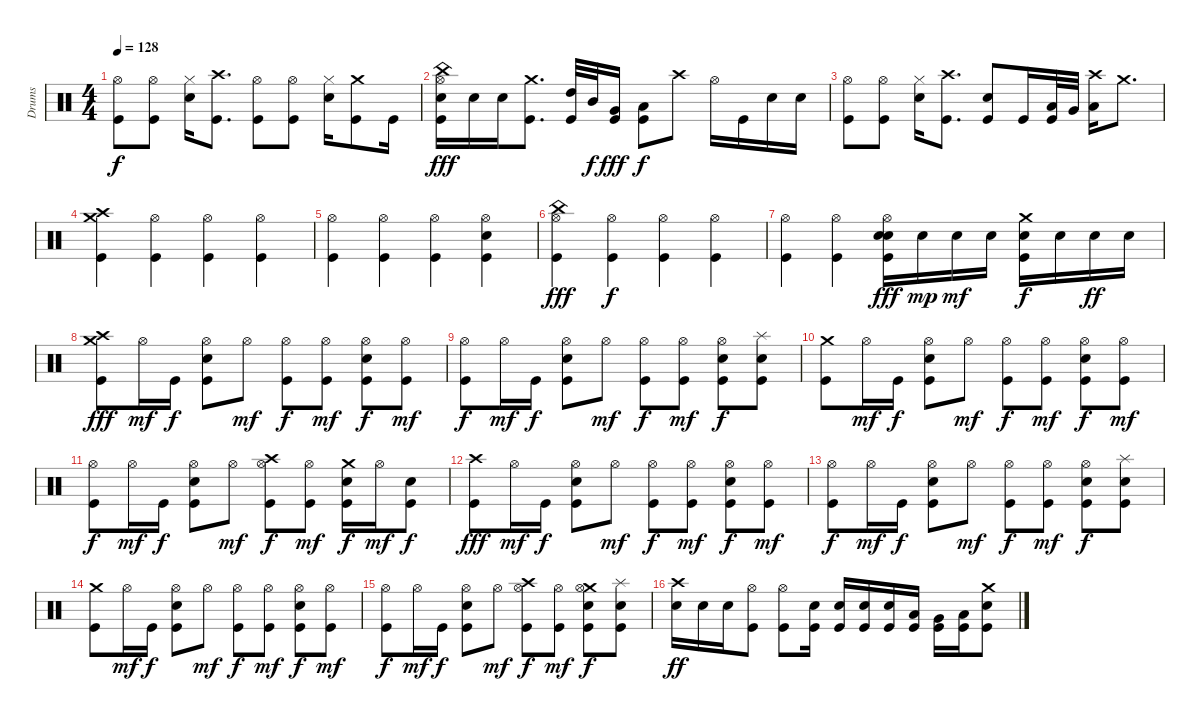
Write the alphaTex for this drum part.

\track ("Drums" "Drums") {instrument percussion}
\staff {score}
\articulation defaults
\ts (4 4)
\tempo 128
\clef neutral
\ks c
("Hi-Hat (open)" "Kick (hit)").8{dy f} ("Kick (hit)" "Hi-Hat (open)").8 ("Hi-Hat (closed)" "Snare (hit) 2").16 ("Crash high (hit)" "Kick (hit)").8{d} ("Hi-Hat (open)" "Kick (hit)").8 ("Hi-Hat (open)" "Kick (hit)").8 ("Hi-Hat (closed)" "Snare (hit) 2").16 ("Crash medium (hit)" "Kick (hit)").8 "Kick (hit)".16 |
("Hi-Hat (open)" "China (hit)" "Kick (hit)" "Snare (hit) 2").16{dy fff} "Snare (hit) 2".16 "Snare (hit) 2".16 ("Kick (hit)" "Crash medium (hit)").8{d} ("Kick (hit)" "High Tom (hit)").32 "Mid Tom (hit)".32{dy f} ("Kick (hit)" "Very Low Tom (hit)").16{dy fff} ("Low Floor Tom (hit)" "Kick (hit)").8{dy f} "Crash high (hit)".8 "Hi-Hat (open)".16 "Kick (hit)".16 "Snare (hit) 2".16 "Snare (hit) 2".16 |
("Hi-Hat (open)" "Kick (hit)").8 ("Hi-Hat (open)" "Kick (hit)").8 ("Hi-Hat (closed)" "Snare (hit) 2").16 ("Crash high (hit)" "Kick (hit)").8{d} ("Snare (hit) 2" "Kick (hit)").8 "Kick (hit)".16 ("Low Tom (hit)" "Kick (hit)").32 "Very Low Tom (hit)".32 ("Low Floor Tom (hit)" "Crash high (hit)").16 "Crash medium (hit)".8{d} |
("Crash medium (hit)" "Crash high (hit)" "Kick (hit)").4 ("Hi-Hat (open)" "Kick (hit)").4 ("Hi-Hat (open)" "Kick (hit)").4 ("Hi-Hat (open)" "Kick (hit)").4 |
("Hi-Hat (open)" "Kick (hit)").4 ("Hi-Hat (open)" "Kick (hit)").4 ("Hi-Hat (open)" "Kick (hit)").4 ("Snare (hit) 2" "Kick (hit)" "Hi-Hat (open)").4 |
("Kick (hit)" "Hi-Hat (open)" "China (hit)").4{dy fff} ("Kick (hit)" "Hi-Hat (open)").4{dy f} ("Hi-Hat (open)" "Kick (hit)").4 ("Hi-Hat (open)" "Kick (hit)").4 |
("Hi-Hat (open)" "Kick (hit)").4 ("Hi-Hat (open)" "Kick (hit)").4 ("Electric Snare (hit)" "Hi-Hat (open)" "Kick (hit)" "Snare (hit) 2").16{dy fff} "Snare (hit) 2".16{dy mp} "Snare (hit) 2".16{dy mf} "Snare (hit) 2".16 ("Snare (hit) 2" "Kick (hit)" "Crash medium (hit)").16{dy f} "Snare (hit) 2".16 "Snare (hit) 2".16{dy ff} "Snare (hit) 2".16 |
("Crash medium (hit)" "Kick (hit)" "Crash high (hit)").8{dy fff} "Hi-Hat (open)".16{dy mf} "Kick (hit)".16{dy f} ("Hi-Hat (open)" "Snare (hit) 2" "Kick (hit)").8 "Hi-Hat (open)".8{dy mf} ("Hi-Hat (open)" "Kick (hit)").8{dy f} ("Hi-Hat (open)" "Kick (hit)").8{dy mf} ("Kick (hit)" "Hi-Hat (open)" "Snare (hit) 2").8{dy f} ("Hi-Hat (open)" "Kick (hit)").8{dy mf} |
("Hi-Hat (open)" "Kick (hit)").8{dy f} "Hi-Hat (open)".16{dy mf} "Kick (hit)".16{dy f} ("Hi-Hat (open)" "Snare (hit) 2" "Kick (hit)").8 "Hi-Hat (open)".8{dy mf} ("Hi-Hat (open)" "Kick (hit)").8{dy f} ("Hi-Hat (open)" "Kick (hit)").8{dy mf} ("Kick (hit)" "Hi-Hat (open)" "Snare (hit) 2").8{dy f} ("Kick (hit)" "Splash (hit)" "Snare (hit) 2").8 |
("Crash medium (hit)" "Kick (hit)").8 "Hi-Hat (open)".16{dy mf} "Kick (hit)".16{dy f} ("Hi-Hat (open)" "Snare (hit) 2" "Kick (hit)").8 "Hi-Hat (open)".8{dy mf} ("Hi-Hat (open)" "Kick (hit)").8{dy f} ("Hi-Hat (open)" "Kick (hit)").8{dy mf} ("Kick (hit)" "Hi-Hat (open)" "Snare (hit) 2").8{dy f} ("Kick (hit)" "Hi-Hat (open)").8{dy mf} |
("Hi-Hat (open)" "Kick (hit)").8{dy f} "Hi-Hat (open)".16{dy mf} "Kick (hit)".16{dy f} ("Hi-Hat (open)" "Snare (hit) 2" "Kick (hit)").8 "Hi-Hat (open)".8{dy mf} ("Crash high (hit)" "Hi-Hat (open)" "Kick (hit)").8{dy f} ("Kick (hit)" "Hi-Hat (open)").8{dy mf} ("Crash medium (hit)" "Snare (hit) 2" "Kick (hit)").16{dy f} "Hi-Hat (open)".16{dy mf} ("Kick (hit)" "Snare (hit) 2").8{dy f} |
("Kick (hit)" "Crash high (hit)").8{dy fff} "Hi-Hat (open)".16{dy mf} "Kick (hit)".16{dy f} ("Hi-Hat (open)" "Snare (hit) 2" "Kick (hit)").8 "Hi-Hat (open)".8{dy mf} ("Hi-Hat (open)" "Kick (hit)").8{dy f} ("Hi-Hat (open)" "Kick (hit)").8{dy mf} ("Kick (hit)" "Hi-Hat (open)" "Snare (hit) 2").8{dy f} ("Hi-Hat (open)" "Kick (hit)").8{dy mf} |
("Hi-Hat (open)" "Kick (hit)").8{dy f} "Hi-Hat (open)".16{dy mf} "Kick (hit)".16{dy f} ("Hi-Hat (open)" "Snare (hit) 2" "Kick (hit)").8 "Hi-Hat (open)".8{dy mf} ("Hi-Hat (open)" "Kick (hit)").8{dy f} ("Hi-Hat (open)" "Kick (hit)").8{dy mf} ("Kick (hit)" "Hi-Hat (open)" "Snare (hit) 2").8{dy f} ("Kick (hit)" "Splash (hit)" "Snare (hit) 2").8 |
("Crash medium (hit)" "Kick (hit)").8 "Hi-Hat (open)".16{dy mf} "Kick (hit)".16{dy f} ("Kick (hit)" "Hi-Hat (open)" "Snare (hit) 2").8 "Hi-Hat (open)".8{dy mf} ("Hi-Hat (open)" "Kick (hit)").8{dy f} ("Hi-Hat (open)" "Kick (hit)").8{dy mf} ("Kick (hit)" "Hi-Hat (open)" "Snare (hit) 2").8{dy f} ("Kick (hit)" "Hi-Hat (open)").8{dy mf} |
("Hi-Hat (open)" "Kick (hit)").8{dy f} "Hi-Hat (open)".16{dy mf} "Kick (hit)".16{dy f} ("Hi-Hat (open)" "Snare (hit) 2" "Kick (hit)").8 "Hi-Hat (open)".8{dy mf} ("Crash high (hit)" "Hi-Hat (open)" "Kick (hit)").8{dy f} ("Kick (hit)" "Hi-Hat (open)").8{dy mf} ("Crash medium (hit)" "Hi-Hat (open)" "Snare (hit) 2" "Kick (hit)").8{dy f} ("Kick (hit)" "Splash (hit)" "Snare (hit) 2").8 |
("Crash high (hit)" "Snare (hit) 2").16{dy ff} "Snare (hit) 2".16 "Snare (hit) 2".16 ("Hi-Hat (open)" "Kick (hit)").8 ("Hi-Hat (open)" "Kick (hit)").8 ("Kick (hit)" "Snare (hit) 2").16 ("Kick (hit)" "Snare (hit) 2").16 ("Kick (hit)" "Snare (hit) 2").16 ("Kick (hit)" "Snare (hit) 2").16 ("Kick (hit)" "Low Tom (hit)").16 ("Kick (hit)" "Very Low Tom (hit)").16 ("Kick (hit)" "Low Floor Tom (hit)").16 ("Kick (hit)" "Crash medium (hit)" "Snare (hit) 2").8
